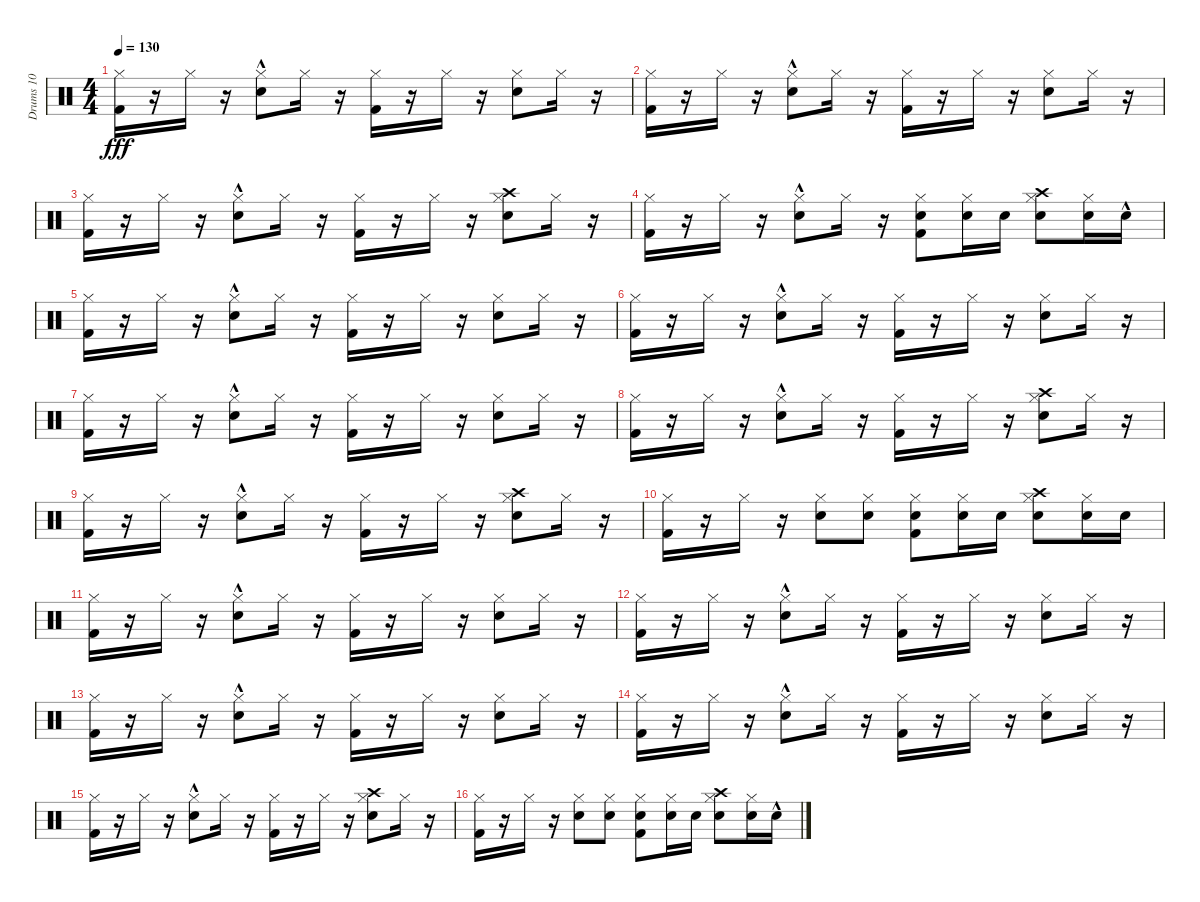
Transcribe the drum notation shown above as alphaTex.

\track ("Drums 10            " "Drums 10  ") {instrument percussion}
\staff {score}
\articulation defaults
\ts (4 4)
\tempo 130
\clef neutral
\ks c
("Kick (hit) 2" "Hi-Hat (closed)").16{dy fff} r.16 "Hi-Hat (closed)".16 r.16 ("Snare (hit) 2"{hac} "Hi-Hat (closed)").8 "Hi-Hat (closed)".16 r.16 ("Kick (hit) 2" "Hi-Hat (closed)").16 r.16 "Hi-Hat (closed)".16 r.16 ("Snare (hit) 2" "Hi-Hat (closed)").8 "Hi-Hat (closed)".16 r.16 |
("Kick (hit) 2" "Hi-Hat (closed)").16 r.16 "Hi-Hat (closed)".16 r.16 ("Snare (hit) 2"{hac} "Hi-Hat (closed)").8 "Hi-Hat (closed)".16 r.16 ("Kick (hit) 2" "Hi-Hat (closed)").16 r.16 "Hi-Hat (closed)".16 r.16 ("Snare (hit) 2" "Hi-Hat (closed)").8 "Hi-Hat (closed)".16 r.16 |
("Kick (hit) 2" "Hi-Hat (closed)").16 r.16 "Hi-Hat (closed)".16 r.16 ("Snare (hit) 2"{hac} "Hi-Hat (closed)").8 "Hi-Hat (closed)".16 r.16 ("Kick (hit) 2" "Hi-Hat (closed)").16 r.16 "Hi-Hat (closed)".16 r.16 ("Snare (hit) 2" "Hi-Hat (closed)" "Crash high (hit)").8 "Hi-Hat (closed)".16 r.16 |
("Kick (hit) 2" "Hi-Hat (closed)").16 r.16 "Hi-Hat (closed)".16 r.16 ("Snare (hit) 2"{hac} "Hi-Hat (closed)").8 "Hi-Hat (closed)".16 r.16 ("Kick (hit) 2" "Snare (hit) 2" "Hi-Hat (closed)").8 ("Snare (hit) 2" "Hi-Hat (closed)").16 "Snare (hit) 2".16 ("Snare (hit) 2" "Hi-Hat (closed)" "Crash high (hit)").8 ("Snare (hit) 2" "Hi-Hat (closed)").16 "Snare (hit) 2"{hac}.16 |
("Kick (hit) 2" "Hi-Hat (closed)").16 r.16 "Hi-Hat (closed)".16 r.16 ("Snare (hit) 2"{hac} "Hi-Hat (closed)").8 "Hi-Hat (closed)".16 r.16 ("Kick (hit) 2" "Hi-Hat (closed)").16 r.16 "Hi-Hat (closed)".16 r.16 ("Snare (hit) 2" "Hi-Hat (closed)").8 "Hi-Hat (closed)".16 r.16 |
("Kick (hit) 2" "Hi-Hat (closed)").16 r.16 "Hi-Hat (closed)".16 r.16 ("Snare (hit) 2"{hac} "Hi-Hat (closed)").8 "Hi-Hat (closed)".16 r.16 ("Kick (hit) 2" "Hi-Hat (closed)").16 r.16 "Hi-Hat (closed)".16 r.16 ("Snare (hit) 2" "Hi-Hat (closed)").8 "Hi-Hat (closed)".16 r.16 |
("Kick (hit) 2" "Hi-Hat (closed)").16 r.16 "Hi-Hat (closed)".16 r.16 ("Snare (hit) 2"{hac} "Hi-Hat (closed)").8 "Hi-Hat (closed)".16 r.16 ("Kick (hit) 2" "Hi-Hat (closed)").16 r.16 "Hi-Hat (closed)".16 r.16 ("Snare (hit) 2" "Hi-Hat (closed)").8 "Hi-Hat (closed)".16 r.16 |
("Kick (hit) 2" "Hi-Hat (closed)").16 r.16 "Hi-Hat (closed)".16 r.16 ("Snare (hit) 2"{hac} "Hi-Hat (closed)").8 "Hi-Hat (closed)".16 r.16 ("Kick (hit) 2" "Hi-Hat (closed)").16 r.16 "Hi-Hat (closed)".16 r.16 ("Snare (hit) 2" "Hi-Hat (closed)" "Crash high (hit)").8 "Hi-Hat (closed)".16 r.16 |
("Kick (hit) 2" "Hi-Hat (closed)").16 r.16 "Hi-Hat (closed)".16 r.16 ("Snare (hit) 2"{hac} "Hi-Hat (closed)").8 "Hi-Hat (closed)".16 r.16 ("Kick (hit) 2" "Hi-Hat (closed)").16 r.16 "Hi-Hat (closed)".16 r.16 ("Snare (hit) 2" "Hi-Hat (closed)" "Crash high (hit)").8 "Hi-Hat (closed)".16 r.16 |
("Kick (hit) 2" "Hi-Hat (closed)").16 r.16 "Hi-Hat (closed)".16 r.16 ("Snare (hit) 2" "Hi-Hat (closed)").8 ("Snare (hit) 2" "Hi-Hat (closed)").8 ("Kick (hit) 2" "Snare (hit) 2" "Hi-Hat (closed)").8 ("Snare (hit) 2" "Hi-Hat (closed)").16 "Snare (hit) 2".16 ("Snare (hit) 2" "Hi-Hat (closed)" "Crash high (hit)").8 ("Snare (hit) 2" "Hi-Hat (closed)").16 "Snare (hit) 2".16 |
("Kick (hit) 2" "Hi-Hat (closed)").16 r.16 "Hi-Hat (closed)".16 r.16 ("Snare (hit) 2"{hac} "Hi-Hat (closed)").8 "Hi-Hat (closed)".16 r.16 ("Kick (hit) 2" "Hi-Hat (closed)").16 r.16 "Hi-Hat (closed)".16 r.16 ("Snare (hit) 2" "Hi-Hat (closed)").8 "Hi-Hat (closed)".16 r.16 |
("Kick (hit) 2" "Hi-Hat (closed)").16 r.16 "Hi-Hat (closed)".16 r.16 ("Snare (hit) 2"{hac} "Hi-Hat (closed)").8 "Hi-Hat (closed)".16 r.16 ("Kick (hit) 2" "Hi-Hat (closed)").16 r.16 "Hi-Hat (closed)".16 r.16 ("Snare (hit) 2" "Hi-Hat (closed)").8 "Hi-Hat (closed)".16 r.16 |
("Kick (hit) 2" "Hi-Hat (closed)").16 r.16 "Hi-Hat (closed)".16 r.16 ("Snare (hit) 2"{hac} "Hi-Hat (closed)").8 "Hi-Hat (closed)".16 r.16 ("Kick (hit) 2" "Hi-Hat (closed)").16 r.16 "Hi-Hat (closed)".16 r.16 ("Snare (hit) 2" "Hi-Hat (closed)").8 "Hi-Hat (closed)".16 r.16 |
("Kick (hit) 2" "Hi-Hat (closed)").16 r.16 "Hi-Hat (closed)".16 r.16 ("Snare (hit) 2"{hac} "Hi-Hat (closed)").8 "Hi-Hat (closed)".16 r.16 ("Kick (hit) 2" "Hi-Hat (closed)").16 r.16 "Hi-Hat (closed)".16 r.16 ("Snare (hit) 2" "Hi-Hat (closed)").8 "Hi-Hat (closed)".16 r.16 |
("Kick (hit) 2" "Hi-Hat (closed)").16 r.16 "Hi-Hat (closed)".16 r.16 ("Snare (hit) 2"{hac} "Hi-Hat (closed)").8 "Hi-Hat (closed)".16 r.16 ("Kick (hit) 2" "Hi-Hat (closed)").16 r.16 "Hi-Hat (closed)".16 r.16 ("Snare (hit) 2" "Hi-Hat (closed)" "Crash high (hit)").8 "Hi-Hat (closed)".16 r.16 |
("Kick (hit) 2" "Hi-Hat (closed)").16 r.16 "Hi-Hat (closed)".16 r.16 ("Snare (hit) 2" "Hi-Hat (closed)").8 ("Snare (hit) 2" "Hi-Hat (closed)").8 ("Kick (hit) 2" "Snare (hit) 2" "Hi-Hat (closed)").8 ("Snare (hit) 2" "Hi-Hat (closed)").16 "Snare (hit) 2".16 ("Snare (hit) 2" "Hi-Hat (closed)" "Crash high (hit)").8 ("Snare (hit) 2" "Hi-Hat (closed)").16 "Snare (hit) 2"{hac}.16
